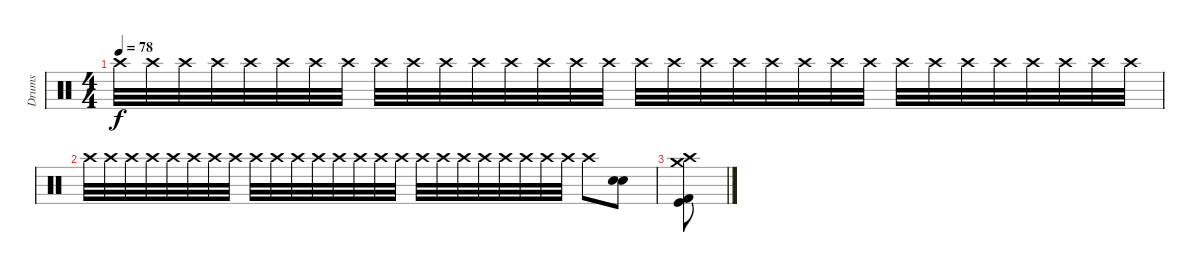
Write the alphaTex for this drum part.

\track ("Drums" "Drums") {instrument percussion}
\staff {score}
\articulation defaults
\ts (4 4)
\tempo 78
\clef neutral
\ks c "Crash high (hit)".32{dy f volume 3} "Crash high (hit)".32 "Crash high (hit)".32 "Crash high (hit)".32 "Crash high (hit)".32 "Crash high (hit)".32 "Crash high (hit)".32 "Crash high (hit)".32 "Crash high (hit)".32 "Crash high (hit)".32 "Crash high (hit)".32 "Crash high (hit)".32 "Crash high (hit)".32 "Crash high (hit)".32 "Crash high (hit)".32 "Crash high (hit)".32 "Crash high (hit)".32 "Crash high (hit)".32 "Crash high (hit)".32 "Crash high (hit)".32 "Crash high (hit)".32 "Crash high (hit)".32 "Crash high (hit)".32 "Crash high (hit)".32 "Crash high (hit)".32 "Crash high (hit)".32 "Crash high (hit)".32 "Crash high (hit)".32 "Crash high (hit)".32 "Crash high (hit)".32 "Crash high (hit)".32 "Crash high (hit)".32
|
"Crash high (hit)".32 "Crash high (hit)".32 "Crash high (hit)".32 "Crash high (hit)".32 "Crash high (hit)".32 "Crash high (hit)".32 "Crash high (hit)".32 "Crash high (hit)".32 "Crash high (hit)".32 "Crash high (hit)".32 "Crash high (hit)".32 "Crash high (hit)".32 "Crash high (hit)".32 "Crash high (hit)".32 "Crash high (hit)".32 "Crash high (hit)".32 "Crash high (hit)".32 "Crash high (hit)".32 "Crash high (hit)".32 "Crash high (hit)".32 "Crash high (hit)".32 "Crash high (hit)".32 "Crash high (hit)".32 "Crash high (hit)".32 "Crash high (hit)".8 ("Electric Snare (hit)" "Snare (hit) 2").8{volume 15} |
("Kick (hit) 2" "Kick (hit)" "Crash high (hit)" "Crash medium (hit)").8
